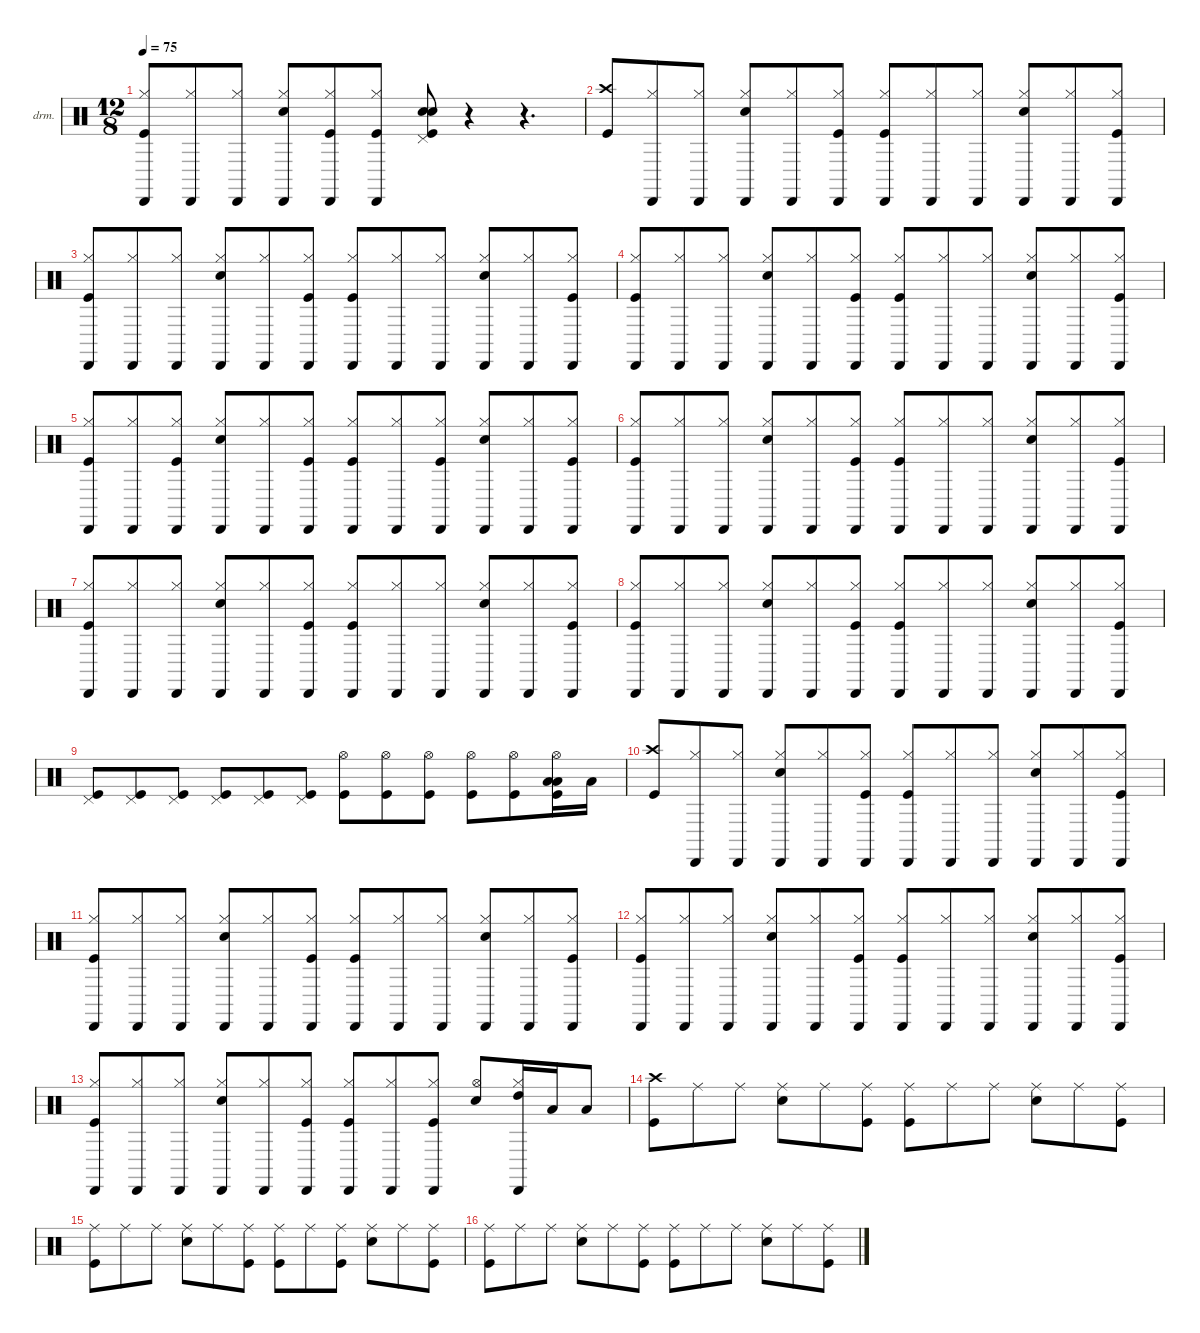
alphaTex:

\defaultSystemsLayout 4
\hideDynamics
\bracketExtendMode nobrackets
\firstSystemTrackNameOrientation horizontal
\otherSystemsTrackNameOrientation horizontal
\track ("Drums" "drm.") {instrument percussion}
\staff {score}
\articulation defaults
\ts (12 8)
\tempo 75
\clef neutral
\ks c
("Kick (hit)" "Hi-Hat (closed)" "Cabasa (hit)").8{dy fff beam Up} ("Hi-Hat (closed)" "Cabasa (hit)").8{dy pp beam Up} ("Hi-Hat (closed)" "Cabasa (hit)").8{dy p beam Up} ("Snare (hit) 2" "Hi-Hat (closed)" "Cabasa (hit)").8{dy ff beam Up} ("Kick (hit)" "Hi-Hat (closed)" "Cabasa (hit)").8{dy mf beam Up} ("Kick (hit)" "Hi-Hat (closed)" "Cabasa (hit)").8{dy f beam Up} ("Pedal Hi-Hat (hit)" "Snare (hit) 2" "Kick (hit)" "Snare (hit) 2").8{dy mf beam Up} r.4{beam Up} r.4{d beam Up} |
("Crash high (hit)" "Kick (hit)").8{dy f beam Up} ("Hi-Hat (closed)" "Cabasa (hit)").8{dy pp beam Up} ("Hi-Hat (closed)" "Cabasa (hit)").8{dy p beam Up} ("Snare (hit) 2" "Hi-Hat (closed)" "Cabasa (hit)").8{dy ff beam Up} ("Hi-Hat (closed)" "Cabasa (hit)").8{dy pp beam Up} ("Kick (hit)" "Hi-Hat (closed)" "Cabasa (hit)").8{dy f beam Up} ("Kick (hit)" "Hi-Hat (closed)" "Cabasa (hit)").8{dy fff beam Up} ("Hi-Hat (closed)" "Cabasa (hit)").8{dy pp beam Up} ("Hi-Hat (closed)" "Cabasa (hit)").8{dy p beam Up} ("Snare (hit) 2" "Hi-Hat (closed)" "Cabasa (hit)").8{dy ff beam Up} ("Hi-Hat (closed)" "Cabasa (hit)").8{dy pp beam Up} ("Kick (hit)" "Hi-Hat (closed)" "Cabasa (hit)").8{dy f beam Up} |
("Kick (hit)" "Hi-Hat (closed)" "Cabasa (hit)").8{dy fff beam Up} ("Hi-Hat (closed)" "Cabasa (hit)").8{dy pp beam Up} ("Hi-Hat (closed)" "Cabasa (hit)").8{dy p beam Up} ("Snare (hit) 2" "Hi-Hat (closed)" "Cabasa (hit)").8{dy ff beam Up} ("Hi-Hat (closed)" "Cabasa (hit)").8{dy pp beam Up} ("Kick (hit)" "Hi-Hat (closed)" "Cabasa (hit)").8{dy f beam Up} ("Kick (hit)" "Hi-Hat (closed)" "Cabasa (hit)").8{dy fff beam Up} ("Hi-Hat (closed)" "Cabasa (hit)").8{dy pp beam Up} ("Hi-Hat (closed)" "Cabasa (hit)").8{dy p beam Up} ("Snare (hit) 2" "Hi-Hat (closed)" "Cabasa (hit)").8{dy ff beam Up} ("Hi-Hat (closed)" "Cabasa (hit)").8{dy pp beam Up} ("Kick (hit)" "Hi-Hat (closed)" "Cabasa (hit)").8{dy f beam Up} |
("Kick (hit)" "Hi-Hat (closed)" "Cabasa (hit)").8{dy fff beam Up} ("Hi-Hat (closed)" "Cabasa (hit)").8{dy pp beam Up} ("Hi-Hat (closed)" "Cabasa (hit)").8{dy p beam Up} ("Snare (hit) 2" "Hi-Hat (closed)" "Cabasa (hit)").8{dy ff beam Up} ("Hi-Hat (closed)" "Cabasa (hit)").8{dy pp beam Up} ("Kick (hit)" "Hi-Hat (closed)" "Cabasa (hit)").8{dy f beam Up} ("Kick (hit)" "Hi-Hat (closed)" "Cabasa (hit)").8{dy fff beam Up} ("Hi-Hat (closed)" "Cabasa (hit)").8{dy pp beam Up} ("Hi-Hat (closed)" "Cabasa (hit)").8{dy p beam Up} ("Snare (hit) 2" "Hi-Hat (closed)" "Cabasa (hit)").8{dy ff beam Up} ("Hi-Hat (closed)" "Cabasa (hit)").8{dy pp beam Up} ("Kick (hit)" "Hi-Hat (closed)" "Cabasa (hit)").8{dy f beam Up} |
("Kick (hit)" "Hi-Hat (closed)" "Cabasa (hit)").8{dy fff beam Up} ("Hi-Hat (closed)" "Cabasa (hit)").8{dy pp beam Up} ("Kick (hit)" "Hi-Hat (closed)" "Cabasa (hit)").8{dy f beam Up} ("Snare (hit) 2" "Hi-Hat (closed)" "Cabasa (hit)").8{dy ff beam Up} ("Hi-Hat (closed)" "Cabasa (hit)").8{dy pp beam Up} ("Kick (hit)" "Hi-Hat (closed)" "Cabasa (hit)").8{dy f beam Up} ("Kick (hit)" "Hi-Hat (closed)" "Cabasa (hit)").8{dy fff beam Up} ("Hi-Hat (closed)" "Cabasa (hit)").8{dy pp beam Up} ("Kick (hit)" "Hi-Hat (closed)" "Cabasa (hit)").8{dy f beam Up} ("Snare (hit) 2" "Hi-Hat (closed)" "Cabasa (hit)").8{dy ff beam Up} ("Hi-Hat (closed)" "Cabasa (hit)").8{dy pp beam Up} ("Kick (hit)" "Hi-Hat (closed)" "Cabasa (hit)").8{dy f beam Up} |
("Kick (hit)" "Hi-Hat (closed)" "Cabasa (hit)").8{dy fff beam Up} ("Hi-Hat (closed)" "Cabasa (hit)").8{dy pp beam Up} ("Hi-Hat (closed)" "Cabasa (hit)").8{dy p beam Up} ("Snare (hit) 2" "Hi-Hat (closed)" "Cabasa (hit)").8{dy ff beam Up} ("Hi-Hat (closed)" "Cabasa (hit)").8{dy pp beam Up} ("Kick (hit)" "Hi-Hat (closed)" "Cabasa (hit)").8{dy f beam Up} ("Kick (hit)" "Hi-Hat (closed)" "Cabasa (hit)").8{dy fff beam Up} ("Hi-Hat (closed)" "Cabasa (hit)").8{dy pp beam Up} ("Hi-Hat (closed)" "Cabasa (hit)").8{dy p beam Up} ("Snare (hit) 2" "Hi-Hat (closed)" "Cabasa (hit)").8{dy ff beam Up} ("Hi-Hat (closed)" "Cabasa (hit)").8{dy pp beam Up} ("Kick (hit)" "Hi-Hat (closed)" "Cabasa (hit)").8{dy f beam Up} |
("Kick (hit)" "Hi-Hat (closed)" "Cabasa (hit)").8{dy fff beam Up} ("Hi-Hat (closed)" "Cabasa (hit)").8{dy pp beam Up} ("Hi-Hat (closed)" "Cabasa (hit)").8{dy p beam Up} ("Snare (hit) 2" "Hi-Hat (closed)" "Cabasa (hit)").8{dy ff beam Up} ("Hi-Hat (closed)" "Cabasa (hit)").8{dy pp beam Up} ("Kick (hit)" "Hi-Hat (closed)" "Cabasa (hit)").8{dy f beam Up} ("Kick (hit)" "Hi-Hat (closed)" "Cabasa (hit)").8{dy fff beam Up} ("Hi-Hat (closed)" "Cabasa (hit)").8{dy pp beam Up} ("Hi-Hat (closed)" "Cabasa (hit)").8{dy p beam Up} ("Snare (hit) 2" "Hi-Hat (closed)" "Cabasa (hit)").8{dy ff beam Up} ("Hi-Hat (closed)" "Cabasa (hit)").8{dy pp beam Up} ("Kick (hit)" "Hi-Hat (closed)" "Cabasa (hit)").8{dy f beam Up} |
("Kick (hit)" "Hi-Hat (closed)" "Cabasa (hit)").8{dy fff beam Up} ("Hi-Hat (closed)" "Cabasa (hit)").8{dy pp beam Up} ("Hi-Hat (closed)" "Cabasa (hit)").8{dy p beam Up} ("Snare (hit) 2" "Hi-Hat (closed)" "Cabasa (hit)").8{dy ff beam Up} ("Hi-Hat (closed)" "Cabasa (hit)").8{dy pp beam Up} ("Kick (hit)" "Hi-Hat (closed)" "Cabasa (hit)").8{dy f beam Up} ("Kick (hit)" "Hi-Hat (closed)" "Cabasa (hit)").8{dy fff beam Up} ("Hi-Hat (closed)" "Cabasa (hit)").8{dy pp beam Up} ("Hi-Hat (closed)" "Cabasa (hit)").8{dy p beam Up} ("Snare (hit) 2" "Hi-Hat (closed)" "Cabasa (hit)").8{dy ff beam Up} ("Hi-Hat (closed)" "Cabasa (hit)").8{dy pp beam Up} ("Kick (hit)" "Hi-Hat (closed)" "Cabasa (hit)").8{dy f beam Up} |
("Pedal Hi-Hat (hit)" "Kick (hit)").8{dy mf beam Up} ("Pedal Hi-Hat (hit)" "Kick (hit)").8{dy p beam Up} ("Pedal Hi-Hat (hit)" "Kick (hit)").8{dy mp beam Up} ("Pedal Hi-Hat (hit)" "Kick (hit)").8{dy mf beam Up} ("Pedal Hi-Hat (hit)" "Kick (hit)").8{dy p beam Up} ("Pedal Hi-Hat (hit)" "Kick (hit)").8{dy mp beam Up} ("Hi-Hat (open)" "Kick (hit)").8{dy mf beam Down} ("Hi-Hat (open)" "Kick (hit)").8{dy p beam Down} ("Hi-Hat (open)" "Kick (hit)").8{dy mp beam Down} ("Hi-Hat (open)" "Kick (hit)").8{dy mf beam Down} ("Hi-Hat (open)" "Kick (hit)").8{dy p beam Down} ("Hi-Hat (open)" "Low Floor Tom (hit)" "Low Tom (hit)" "Kick (hit)").16{dy mp beam Down} "Low Floor Tom (hit)".16{dy f beam Down} |
("Crash high (hit)" "Kick (hit)").8{beam Up} ("Hi-Hat (closed)" "Cabasa (hit)").8{dy pp beam Up} ("Hi-Hat (closed)" "Cabasa (hit)").8{dy p beam Up} ("Snare (hit) 2" "Hi-Hat (closed)" "Cabasa (hit)").8{dy ff beam Up} ("Hi-Hat (closed)" "Cabasa (hit)").8{dy pp beam Up} ("Kick (hit)" "Hi-Hat (closed)" "Cabasa (hit)").8{dy f beam Up} ("Kick (hit)" "Hi-Hat (closed)" "Cabasa (hit)").8{dy fff beam Up} ("Hi-Hat (closed)" "Cabasa (hit)").8{dy pp beam Up} ("Hi-Hat (closed)" "Cabasa (hit)").8{dy p beam Up} ("Snare (hit) 2" "Hi-Hat (closed)" "Cabasa (hit)").8{dy ff beam Up} ("Hi-Hat (closed)" "Cabasa (hit)").8{dy pp beam Up} ("Kick (hit)" "Hi-Hat (closed)" "Cabasa (hit)").8{dy f beam Up} |
("Kick (hit)" "Hi-Hat (closed)" "Cabasa (hit)").8{dy fff beam Up} ("Hi-Hat (closed)" "Cabasa (hit)").8{dy pp beam Up} ("Hi-Hat (closed)" "Cabasa (hit)").8{dy p beam Up} ("Snare (hit) 2" "Hi-Hat (closed)" "Cabasa (hit)").8{dy ff beam Up} ("Hi-Hat (closed)" "Cabasa (hit)").8{dy pp beam Up} ("Kick (hit)" "Hi-Hat (closed)" "Cabasa (hit)").8{dy f beam Up} ("Kick (hit)" "Hi-Hat (closed)" "Cabasa (hit)").8{dy fff beam Up} ("Hi-Hat (closed)" "Cabasa (hit)").8{dy pp beam Up} ("Hi-Hat (closed)" "Cabasa (hit)").8{dy p beam Up} ("Snare (hit) 2" "Hi-Hat (closed)" "Cabasa (hit)").8{dy ff beam Up} ("Hi-Hat (closed)" "Cabasa (hit)").8{dy pp beam Up} ("Kick (hit)" "Hi-Hat (closed)" "Cabasa (hit)").8{dy f beam Up} |
("Kick (hit)" "Hi-Hat (closed)" "Cabasa (hit)").8{dy fff beam Up} ("Hi-Hat (closed)" "Cabasa (hit)").8{dy pp beam Up} ("Hi-Hat (closed)" "Cabasa (hit)").8{dy p beam Up} ("Snare (hit) 2" "Hi-Hat (closed)" "Cabasa (hit)").8{dy ff beam Up} ("Hi-Hat (closed)" "Cabasa (hit)").8{dy pp beam Up} ("Kick (hit)" "Hi-Hat (closed)" "Cabasa (hit)").8{dy f beam Up} ("Kick (hit)" "Hi-Hat (closed)" "Cabasa (hit)").8{dy fff beam Up} ("Hi-Hat (closed)" "Cabasa (hit)").8{dy pp beam Up} ("Hi-Hat (closed)" "Cabasa (hit)").8{dy p beam Up} ("Snare (hit) 2" "Hi-Hat (closed)" "Cabasa (hit)").8{dy ff beam Up} ("Hi-Hat (closed)" "Cabasa (hit)").8{dy pp beam Up} ("Kick (hit)" "Hi-Hat (closed)" "Cabasa (hit)").8{dy f beam Up} |
("Kick (hit)" "Hi-Hat (closed)" "Cabasa (hit)").8{dy fff beam Up} ("Hi-Hat (closed)" "Cabasa (hit)").8{dy pp beam Up} ("Hi-Hat (closed)" "Cabasa (hit)").8{dy p beam Up} ("Snare (hit) 2" "Hi-Hat (closed)" "Cabasa (hit)").8{dy ff beam Up} ("Hi-Hat (closed)" "Cabasa (hit)").8{dy pp beam Up} ("Kick (hit)" "Hi-Hat (closed)" "Cabasa (hit)").8{dy f beam Up} ("Kick (hit)" "Hi-Hat (closed)" "Cabasa (hit)").8{dy fff beam Up} ("Hi-Hat (closed)" "Cabasa (hit)").8{dy pp beam Up} ("Kick (hit)" "Hi-Hat (closed)" "Cabasa (hit)").8{dy f beam Up} ("Hi-Hat (open)" "Snare (hit) 2").8{dy mf beam Up} ("High Tom (hit)" "Hi-Hat (closed)" "Cabasa (hit)").16{dy f beam Up} "Low Tom (hit)".16{beam Up} "Low Floor Tom (hit)".8{beam Up} |
("Crash high (hit)" "Kick (hit)").8{beam Down} "Ride (middle)".8{dy p beam Down} "Ride (middle)".8{dy mp beam Down} ("Ride (middle)" "Snare (hit) 2").8{dy mf beam Down} "Ride (middle)".8{dy p beam Down} ("Ride (middle)" "Kick (hit)").8{dy mp beam Down} ("Ride (middle)" "Kick (hit)").8{beam Down} "Ride (middle)".8{dy p beam Down} "Ride (middle)".8{dy mp beam Down} ("Ride (middle)" "Snare (hit) 2").8{dy mf beam Down} "Ride (middle)".8{dy p beam Down} ("Ride (middle)" "Kick (hit)").8{dy mp beam Down} |
("Ride (middle)" "Kick (hit)").8{dy mf beam Down} "Ride (middle)".8{dy p beam Down} "Ride (middle)".8{dy mp beam Down} ("Ride (middle)" "Snare (hit) 2").8{dy mf beam Down} "Ride (middle)".8{dy p beam Down} ("Ride (middle)" "Kick (hit)").8{dy mp beam Down} ("Ride (middle)" "Kick (hit)").8{beam Down} "Ride (middle)".8{dy p beam Down} ("Ride (middle)" "Kick (hit)").8{dy mp beam Down} ("Ride (middle)" "Snare (hit) 2").8{dy mf beam Down} "Ride (middle)".8{dy p beam Down} ("Ride (middle)" "Kick (hit)").8{dy mp beam Down} |
("Ride (middle)" "Kick (hit)").8{dy mf beam Down} "Ride (middle)".8{dy p beam Down} "Ride (middle)".8{dy mp beam Down} ("Ride (middle)" "Snare (hit) 2").8{dy mf beam Down} "Ride (middle)".8{dy p beam Down} ("Ride (middle)" "Kick (hit)").8{dy mp beam Down} ("Ride (middle)" "Kick (hit)").8{beam Down} "Ride (middle)".8{dy p beam Down} "Ride (middle)".8{dy mp beam Down} ("Ride (middle)" "Snare (hit) 2").8{dy mf beam Down} "Ride (middle)".8{dy p beam Down} ("Ride (middle)" "Kick (hit)").8{dy mp beam Down}
